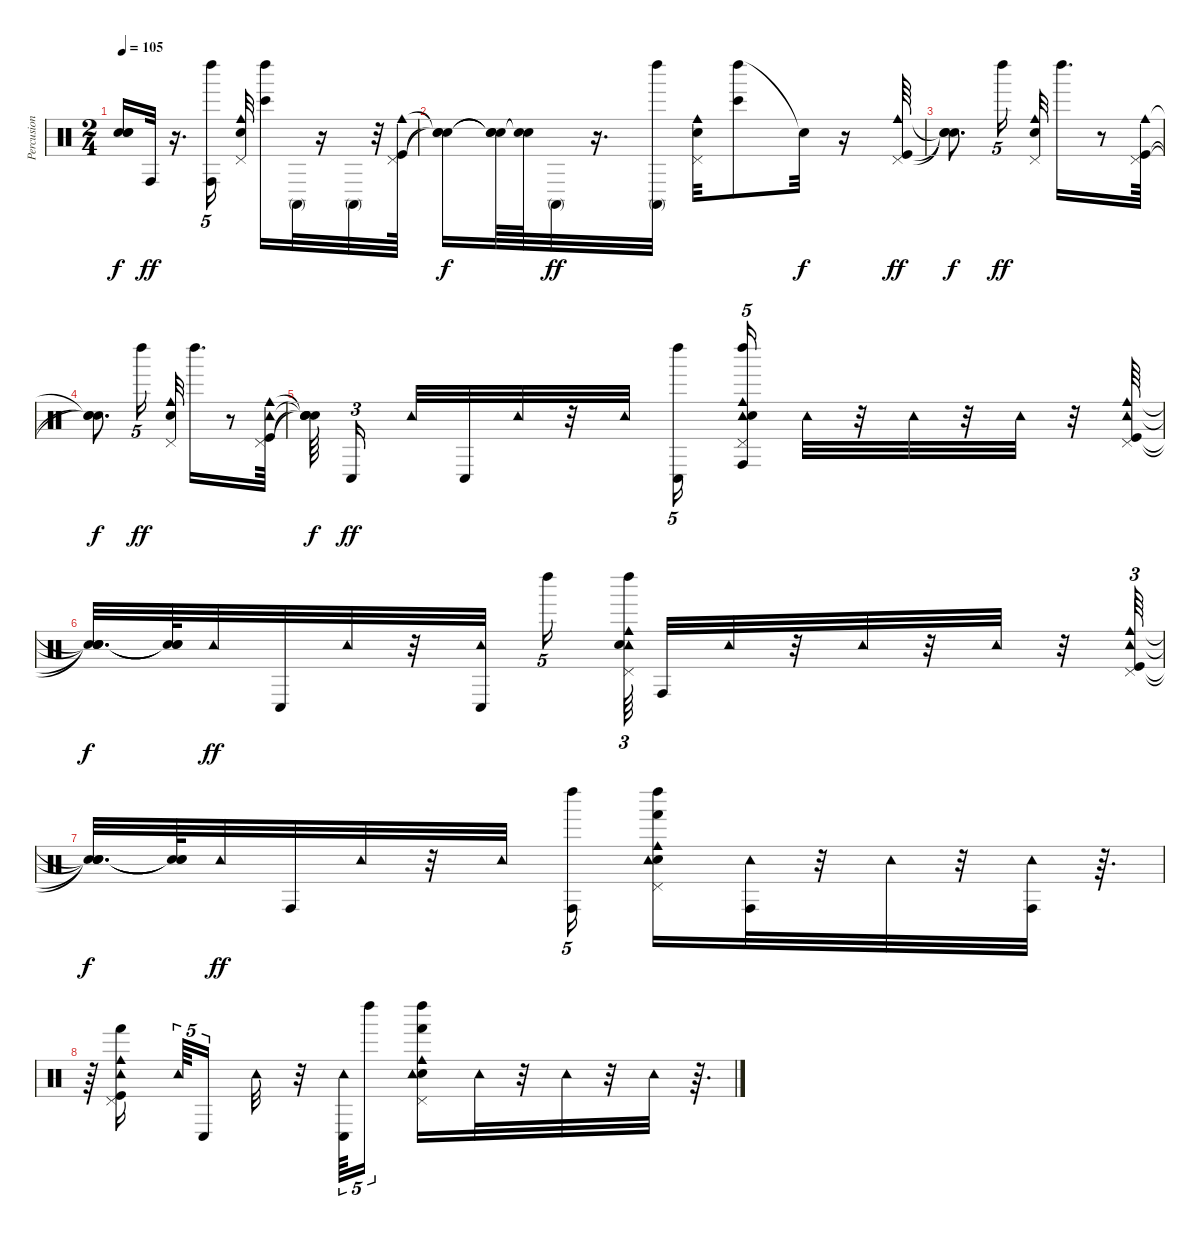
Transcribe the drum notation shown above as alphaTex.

\track ("Percusion" "Percusion") {instrument percussion}
\staff {score}
\articulation defaults
\ts (2 4)
\tempo 105
\clef neutral
\ks c
("Snare (hit)"{t} "Snare (hit)"{t} "Snare (hit)"{t}).16{dy f} "Conga high (hit)".32{dy ff} r.16{d} ("Conga high (hit)" "Left Maraca (hit)").16{tu (5 4)} ("Pedal Hi-Hat (hit)" "Electric Snare (hit)" "Cowbell medium (hit)").32 ("Left Maraca (hit)" "Bongo High (hit)").16 "Conga high (mute)".32 r.16 "Conga high (mute)".32 r.32 ("Pedal Hi-Hat (hit)" "Cowbell medium (hit)" "Kick (hit)").64 |
("Snare (hit)"{t} "Snare (hit)"{t} "Snare (hit)"{t}).16{dy f} ("Snare (hit)"{t} "Snare (hit)"{t} "Snare (hit)"{t}).64 ("Snare (hit)"{t} "Snare (hit)"{t}).64 "Conga high (mute)".32{dy ff} r.16{d} ("Left Maraca (hit)" "Conga high (mute)").32 ("Pedal Hi-Hat (hit)" "Cowbell medium (hit)" "Electric Snare (hit)").32 ("Left Maraca (hit)" "Bongo High (hit)").8 "Snare (hit)"{t}.32{dy f} r.16 ("Pedal Hi-Hat (hit)" "Cowbell medium (hit)" "Kick (hit)").64{dy ff} |
("Snare (hit)"{t} "Snare (hit)"{t} "Snare (hit)"{t}).8{d dy f} "Left Maraca (hit)".16{tu (5 4) dy ff} ("Pedal Hi-Hat (hit)" "Cowbell medium (hit)" "Electric Snare (hit)").32 "Left Maraca (hit)".16{d} r.8 ("Pedal Hi-Hat (hit)" "Kick (hit)" "Cowbell medium (hit)").64 |
("Snare (hit)"{t} "Snare (hit)"{t} "Snare (hit)"{t}).8{d dy f} "Left Maraca (hit)".16{tu (5 4) dy ff} ("Pedal Hi-Hat (hit)" "Cowbell medium (hit)" "Electric Snare (hit)").32 "Left Maraca (hit)".16{d} r.8 ("Pedal Hi-Hat (hit)" "Cowbell medium (hit)" "Tambourine (hit)" "Kick (hit)").64 |
("Snare (hit)"{t} "Snare (hit)"{t} "Snare (hit)"{t} "Snare (hit)"{t}).64{dy f beam splitsecondary} "Conga low (hit)".16{tu (3 2) dy ff beam splitsecondary} "Tambourine (hit)".32 "Conga low (hit)".32 "Tambourine (hit)".32 r.32 "Tambourine (hit)".32 ("Conga low (hit)" "Left Maraca (hit)").16{tu (5 4)} ("Pedal Hi-Hat (hit)" "Tambourine (hit)" "Cowbell medium (hit)" "Electric Snare (hit)" "Left Maraca (hit)" "Conga high (hit)").16{tu (5 4)} "Tambourine (hit)".32 r.32 "Tambourine (hit)".32 r.32 "Tambourine (hit)".32 r.32 ("Pedal Hi-Hat (hit)" "Kick (hit)" "Tambourine (hit)" "Cowbell medium (hit)").64 |
("Snare (hit)"{t} "Snare (hit)"{t} "Snare (hit)"{t} "Snare (hit)"{t}).32{d dy f} ("Snare (hit)"{t} "Snare (hit)"{t} "Snare (hit)"{t}).64 "Tambourine (hit)".32{dy ff} "Conga low (hit)".32 "Tambourine (hit)".32 r.32 ("Tambourine (hit)" "Conga low (hit)").32 "Left Maraca (hit)".16{tu (5 4)} ("Pedal Hi-Hat (hit)" "Tambourine (hit)" "Electric Snare (hit)" "Cowbell medium (hit)" "Left Maraca (hit)").64{tu (3 2) beam splitsecondary} "Conga high (hit)".32 "Tambourine (hit)".32 r.32 "Tambourine (hit)".32 r.32 "Tambourine (hit)".32 r.32 ("Pedal Hi-Hat (hit)" "Cowbell medium (hit)" "Tambourine (hit)" "Kick (hit)").64{tu (3 2)} |
("Snare (hit)"{t} "Snare (hit)"{t} "Snare (hit)"{t} "Snare (hit)"{t}).32{d dy f} ("Snare (hit)"{t} "Snare (hit)"{t} "Snare (hit)"{t}).64 "Tambourine (hit)".32{dy ff} "Conga high (hit)".32 "Tambourine (hit)".32 r.32 "Tambourine (hit)".32 ("Conga high (hit)" "Left Maraca (hit)").16{tu (5 4)} ("Pedal Hi-Hat (hit)" "Electric Snare (hit)" "Hand (hit)" "Cowbell medium (hit)" "Tambourine (hit)" "Left Maraca (hit)").16 ("Tambourine (hit)" "Conga high (hit)").32 r.32 "Tambourine (hit)".32 r.32 ("Tambourine (hit)" "Conga high (hit)").32 r.64{d} |
r.64 ("Pedal Hi-Hat (hit)" "Tambourine (hit)" "Kick (hit)" "Cowbell medium (hit)" "Hand (hit)").16{beam splitsecondary} "Tambourine (hit)".64{tu (5 4)} "Conga low (hit)".16{tu (5 4) beam splitsecondary} "Tambourine (hit)".32 r.32 ("Tambourine (hit)" "Conga low (hit)").64{tu (5 4)} "Left Maraca (hit)".16{tu (5 4)} ("Pedal Hi-Hat (hit)" "Cowbell medium (hit)" "Electric Snare (hit)" "Tambourine (hit)" "Left Maraca (hit)" "Hand (hit)").16 "Tambourine (hit)".32 r.32 "Tambourine (hit)".32 r.32 "Tambourine (hit)".32 r.64{d}
